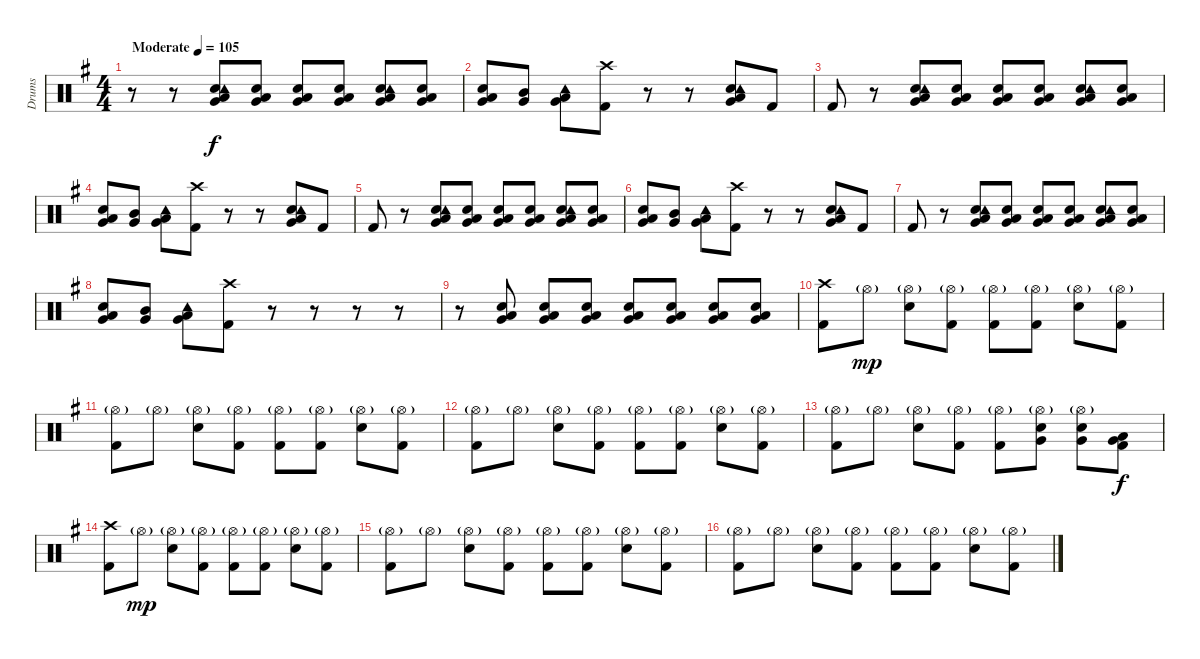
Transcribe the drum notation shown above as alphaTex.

\track ("Drums" "Drums") {instrument percussion}
\staff {score}
\articulation defaults
\ts (4 4)
\tempo (105 "Moderate")
\clef neutral
\ks g
r.8{dy f} r.8 ("Snare (hit) 2" "Low Tom (hit)" "Very Low Tom (hit)" "Tambourine (hit)").8 ("Snare (hit) 2" "Low Tom (hit)" "Very Low Tom (hit)").8 ("Snare (hit) 2" "Low Tom (hit)" "Very Low Tom (hit)").8 ("Snare (hit) 2" "Low Tom (hit)" "Very Low Tom (hit)").8 ("Snare (hit) 2" "Low Tom (hit)" "Very Low Tom (hit)" "Tambourine (hit)").8 ("Snare (hit) 2" "Low Tom (hit)" "Very Low Tom (hit)").8 |
("Snare (hit) 2" "Low Tom (hit)" "Very Low Tom (hit)").8 ("Mid Tom (hit)" "Very Low Tom (hit)").8 ("Low Tom (hit)" "Very Low Tom (hit)" "Tambourine (hit)").8 ("Kick (hit) 2" "Crash high (hit)").8 r.8 r.8 ("Snare (hit) 2" "Low Tom (hit)" "Very Low Tom (hit)" "Tambourine (hit)").8 "Kick (hit) 2".8 |
"Kick (hit) 2".8 r.8 ("Snare (hit) 2" "Low Tom (hit)" "Very Low Tom (hit)" "Tambourine (hit)").8 ("Snare (hit) 2" "Low Tom (hit)" "Very Low Tom (hit)").8 ("Snare (hit) 2" "Low Tom (hit)" "Very Low Tom (hit)").8 ("Snare (hit) 2" "Low Tom (hit)" "Very Low Tom (hit)").8 ("Snare (hit) 2" "Low Tom (hit)" "Very Low Tom (hit)" "Tambourine (hit)").8 ("Snare (hit) 2" "Low Tom (hit)" "Very Low Tom (hit)").8 |
("Snare (hit) 2" "Low Tom (hit)" "Very Low Tom (hit)").8 ("Mid Tom (hit)" "Very Low Tom (hit)").8 ("Low Tom (hit)" "Very Low Tom (hit)" "Tambourine (hit)").8 ("Kick (hit) 2" "Crash high (hit)").8 r.8 r.8 ("Snare (hit) 2" "Low Tom (hit)" "Very Low Tom (hit)" "Tambourine (hit)").8 "Kick (hit) 2".8 |
"Kick (hit) 2".8 r.8 ("Snare (hit) 2" "Low Tom (hit)" "Very Low Tom (hit)" "Tambourine (hit)").8 ("Snare (hit) 2" "Low Tom (hit)" "Very Low Tom (hit)").8 ("Snare (hit) 2" "Low Tom (hit)" "Very Low Tom (hit)").8 ("Snare (hit) 2" "Low Tom (hit)" "Very Low Tom (hit)").8 ("Snare (hit) 2" "Low Tom (hit)" "Very Low Tom (hit)" "Tambourine (hit)").8 ("Snare (hit) 2" "Low Tom (hit)" "Very Low Tom (hit)").8 |
("Snare (hit) 2" "Low Tom (hit)" "Very Low Tom (hit)").8 ("Mid Tom (hit)" "Very Low Tom (hit)").8 ("Low Tom (hit)" "Very Low Tom (hit)" "Tambourine (hit)").8 ("Kick (hit) 2" "Crash high (hit)").8 r.8 r.8 ("Snare (hit) 2" "Low Tom (hit)" "Very Low Tom (hit)" "Tambourine (hit)").8 "Kick (hit) 2".8 |
"Kick (hit) 2".8 r.8 ("Snare (hit) 2" "Low Tom (hit)" "Very Low Tom (hit)" "Tambourine (hit)").8 ("Snare (hit) 2" "Low Tom (hit)" "Very Low Tom (hit)").8 ("Snare (hit) 2" "Low Tom (hit)" "Very Low Tom (hit)").8 ("Snare (hit) 2" "Low Tom (hit)" "Very Low Tom (hit)").8 ("Snare (hit) 2" "Low Tom (hit)" "Very Low Tom (hit)" "Tambourine (hit)").8 ("Snare (hit) 2" "Low Tom (hit)" "Very Low Tom (hit)").8 |
("Snare (hit) 2" "Low Tom (hit)" "Very Low Tom (hit)").8 ("Mid Tom (hit)" "Very Low Tom (hit)").8 ("Low Tom (hit)" "Very Low Tom (hit)" "Tambourine (hit)").8 ("Kick (hit) 2" "Crash high (hit)").8 r.8 r.8 r.8 r.8 |
r.8 ("Snare (hit) 2" "Low Tom (hit)" "Very Low Tom (hit)").8 ("Snare (hit) 2" "Low Tom (hit)" "Very Low Tom (hit)").8 ("Snare (hit) 2" "Low Tom (hit)" "Very Low Tom (hit)").8 ("Snare (hit) 2" "Low Tom (hit)" "Very Low Tom (hit)").8 ("Snare (hit) 2" "Low Tom (hit)" "Very Low Tom (hit)").8 ("Snare (hit) 2" "Low Tom (hit)" "Very Low Tom (hit)").8 ("Snare (hit) 2" "Low Tom (hit)" "Very Low Tom (hit)").8 |
("Kick (hit) 2" "Crash high (hit)").8 "Hi-Hat (open)"{g}.8{dy mp} ("Hi-Hat (open)"{g} "Snare (hit) 2").8 ("Hi-Hat (open)"{g} "Kick (hit) 2").8 ("Hi-Hat (open)"{g} "Kick (hit) 2").8 ("Hi-Hat (open)"{g} "Kick (hit) 2").8 ("Hi-Hat (open)"{g} "Snare (hit) 2").8 ("Hi-Hat (open)"{g} "Kick (hit) 2").8 |
("Hi-Hat (open)"{g} "Kick (hit) 2").8 "Hi-Hat (open)"{g}.8 ("Hi-Hat (open)"{g} "Snare (hit) 2").8 ("Hi-Hat (open)"{g} "Kick (hit) 2").8 ("Hi-Hat (open)"{g} "Kick (hit) 2").8 ("Hi-Hat (open)"{g} "Kick (hit) 2").8 ("Hi-Hat (open)"{g} "Snare (hit) 2").8 ("Hi-Hat (open)"{g} "Kick (hit) 2").8 |
("Hi-Hat (open)"{g} "Kick (hit) 2").8 "Hi-Hat (open)"{g}.8 ("Hi-Hat (open)"{g} "Snare (hit) 2").8 ("Hi-Hat (open)"{g} "Kick (hit) 2").8 ("Hi-Hat (open)"{g} "Kick (hit) 2").8 ("Hi-Hat (open)"{g} "Kick (hit) 2").8 ("Hi-Hat (open)"{g} "Snare (hit) 2").8 ("Hi-Hat (open)"{g} "Kick (hit) 2").8 |
("Hi-Hat (open)"{g} "Kick (hit) 2").8 "Hi-Hat (open)"{g}.8 ("Hi-Hat (open)"{g} "Snare (hit) 2").8 ("Hi-Hat (open)"{g} "Kick (hit) 2").8 ("Hi-Hat (open)"{g} "Kick (hit) 2").8 ("Hi-Hat (open)"{g} "Snare (hit) 2" "Very Low Tom (hit)").8 ("Hi-Hat (open)"{g} "Snare (hit) 2" "Very Low Tom (hit)").8 ("Kick (hit) 2" "Low Tom (hit)" "Very Low Tom (hit)").8{dy f} |
("Kick (hit) 2" "Crash high (hit)").8 "Hi-Hat (open)"{g}.8{dy mp} ("Hi-Hat (open)"{g} "Snare (hit) 2").8 ("Hi-Hat (open)"{g} "Kick (hit) 2").8 ("Hi-Hat (open)"{g} "Kick (hit) 2").8 ("Hi-Hat (open)"{g} "Kick (hit) 2").8 ("Hi-Hat (open)"{g} "Snare (hit) 2").8 ("Hi-Hat (open)"{g} "Kick (hit) 2").8 |
("Hi-Hat (open)"{g} "Kick (hit) 2").8 "Hi-Hat (open)"{g}.8 ("Hi-Hat (open)"{g} "Snare (hit) 2").8 ("Hi-Hat (open)"{g} "Kick (hit) 2").8 ("Hi-Hat (open)"{g} "Kick (hit) 2").8 ("Hi-Hat (open)"{g} "Kick (hit) 2").8 ("Hi-Hat (open)"{g} "Snare (hit) 2").8 ("Hi-Hat (open)"{g} "Kick (hit) 2").8 |
("Hi-Hat (open)"{g} "Kick (hit) 2").8 "Hi-Hat (open)"{g}.8 ("Hi-Hat (open)"{g} "Snare (hit) 2").8 ("Hi-Hat (open)"{g} "Kick (hit) 2").8 ("Hi-Hat (open)"{g} "Kick (hit) 2").8 ("Hi-Hat (open)"{g} "Kick (hit) 2").8 ("Hi-Hat (open)"{g} "Snare (hit) 2").8 ("Hi-Hat (open)"{g} "Kick (hit) 2").8
